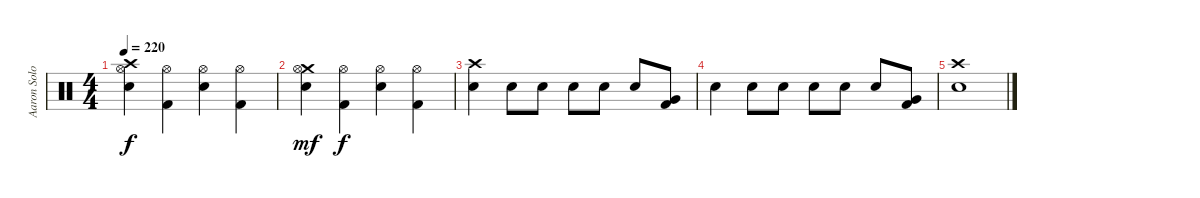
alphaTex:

\track ("Aaron Solowoniuk" "Aaron Solo") {instrument percussion}
\staff {score}
\articulation defaults
\ts (4 4)
\tempo 220
\clef neutral
\ks c
("Crash high (hit)" "Hi-Hat (open)" "Snare (hit) 2").4{dy f} ("Hi-Hat (open)" "Kick (hit) 2").4 ("Hi-Hat (open)" "Snare (hit) 2").4 ("Hi-Hat (open)" "Kick (hit) 2").4 |
("Crash medium (hit)" "Hi-Hat (open)" "Snare (hit) 2").4{dy mf} ("Hi-Hat (open)" "Kick (hit) 2").4{dy f} ("Hi-Hat (open)" "Snare (hit) 2").4 ("Hi-Hat (open)" "Kick (hit) 2").4 |
("Crash high (hit)" "Snare (hit) 2").4 "Snare (hit) 2".8 "Snare (hit) 2".8 "Snare (hit) 2".8 "Snare (hit) 2".8 "Snare (hit) 2".8 ("Very Low Tom (hit)" "Kick (hit) 2").8 |
"Snare (hit) 2".4 "Snare (hit) 2".8 "Snare (hit) 2".8 "Snare (hit) 2".8 "Snare (hit) 2".8 "Snare (hit) 2".8 ("Very Low Tom (hit)" "Kick (hit) 2").8 |
("Crash high (hit)" "Snare (hit) 2").1
